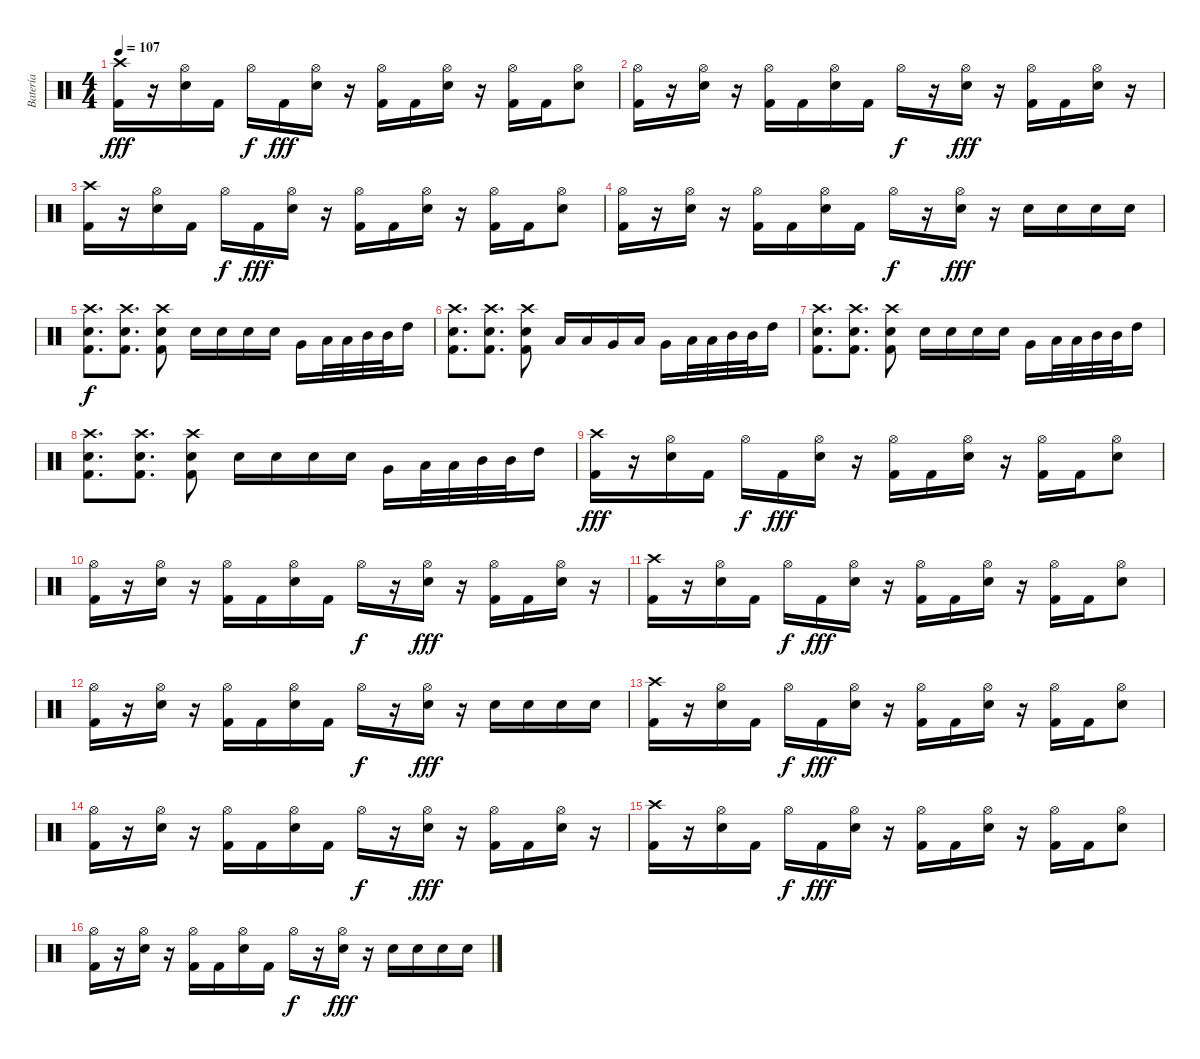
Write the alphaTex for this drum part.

\track ("Batería" "Batería") {instrument percussion}
\staff {score}
\articulation defaults
\ts (4 4)
\tempo 107
\clef neutral
\ks c
("Crash high (hit)" "Kick (hit) 2").16{dy fff} r.16 ("Hi-Hat (open)" "Electric Snare (hit)").16 "Kick (hit) 2".16 "Hi-Hat (open)".16{dy f} "Kick (hit) 2".16{dy fff} ("Hi-Hat (open)" "Electric Snare (hit)").16 r.16 ("Hi-Hat (open)" "Kick (hit) 2").16 "Kick (hit) 2".16 ("Hi-Hat (open)" "Electric Snare (hit)").16 r.16 ("Hi-Hat (open)" "Kick (hit) 2").16 "Kick (hit) 2".16 ("Hi-Hat (open)" "Electric Snare (hit)").8 |
("Hi-Hat (open)" "Kick (hit) 2").16 r.16 ("Hi-Hat (open)" "Electric Snare (hit)").16 r.16 ("Hi-Hat (open)" "Kick (hit) 2").16 "Kick (hit) 2".16 ("Hi-Hat (open)" "Electric Snare (hit)").16 "Kick (hit) 2".16 "Hi-Hat (open)".16{dy f} r.16 ("Hi-Hat (open)" "Electric Snare (hit)").16{dy fff} r.16 ("Hi-Hat (open)" "Kick (hit) 2").16 "Kick (hit) 2".16 ("Hi-Hat (open)" "Electric Snare (hit)").16 r.16 |
("Crash high (hit)" "Kick (hit) 2").16 r.16 ("Hi-Hat (open)" "Electric Snare (hit)").16 "Kick (hit) 2".16 "Hi-Hat (open)".16{dy f} "Kick (hit) 2".16{dy fff} ("Hi-Hat (open)" "Electric Snare (hit)").16 r.16 ("Hi-Hat (open)" "Kick (hit) 2").16 "Kick (hit) 2".16 ("Hi-Hat (open)" "Electric Snare (hit)").16 r.16 ("Hi-Hat (open)" "Kick (hit) 2").16 "Kick (hit) 2".16 ("Hi-Hat (open)" "Electric Snare (hit)").8 |
("Hi-Hat (open)" "Kick (hit) 2").16 r.16 ("Hi-Hat (open)" "Electric Snare (hit)").16 r.16 ("Hi-Hat (open)" "Kick (hit) 2").16 "Kick (hit) 2".16 ("Hi-Hat (open)" "Electric Snare (hit)").16 "Kick (hit) 2".16 "Hi-Hat (open)".16{dy f} r.16 ("Hi-Hat (open)" "Electric Snare (hit)").16{dy fff} r.16 "Electric Snare (hit)".16 "Electric Snare (hit)".16 "Electric Snare (hit)".16 "Electric Snare (hit)".16 |
("Crash high (hit)" "Kick (hit) 2" "Electric Snare (hit)").8{d dy f} ("Crash high (hit)" "Kick (hit) 2" "Electric Snare (hit)").8{d} ("Crash high (hit)" "Kick (hit) 2" "Electric Snare (hit)").8 "Electric Snare (hit)".16 "Electric Snare (hit)".16 "Electric Snare (hit)".16 "Electric Snare (hit)".16 "Very Low Tom (hit)".16 "Low Tom (hit)".32 "Low Tom (hit)".32 "Mid Tom (hit)".32 "Mid Tom (hit)".32 "High Tom (hit)".16 |
("Crash high (hit)" "Kick (hit) 2" "Electric Snare (hit)").8{d} ("Crash high (hit)" "Kick (hit) 2" "Electric Snare (hit)").8{d} ("Crash high (hit)" "Kick (hit) 2" "Electric Snare (hit)").8 "Low Tom (hit)".16 "Low Tom (hit)".16 "Very Low Tom (hit)".16 "Low Floor Tom (hit)".16 "Very Low Tom (hit)".16 "Low Tom (hit)".32 "Low Tom (hit)".32 "Mid Tom (hit)".32 "Mid Tom (hit)".32 "High Tom (hit)".16 |
("Crash high (hit)" "Kick (hit) 2" "Electric Snare (hit)").8{d} ("Crash high (hit)" "Kick (hit) 2" "Electric Snare (hit)").8{d} ("Crash high (hit)" "Kick (hit) 2" "Electric Snare (hit)").8 "Electric Snare (hit)".16 "Electric Snare (hit)".16 "Electric Snare (hit)".16 "Electric Snare (hit)".16 "Very Low Tom (hit)".16 "Low Tom (hit)".32 "Low Tom (hit)".32 "Mid Tom (hit)".32 "Mid Tom (hit)".32 "High Tom (hit)".16 |
("Crash high (hit)" "Kick (hit) 2" "Electric Snare (hit)").8{d} ("Crash high (hit)" "Kick (hit) 2" "Electric Snare (hit)").8{d} ("Crash high (hit)" "Kick (hit) 2" "Electric Snare (hit)").8 "Electric Snare (hit)".16 "Electric Snare (hit)".16 "Electric Snare (hit)".16 "Electric Snare (hit)".16 "Very Low Tom (hit)".16 "Low Tom (hit)".32 "Low Tom (hit)".32 "Mid Tom (hit)".32 "Mid Tom (hit)".32 "High Tom (hit)".16 |
("Crash high (hit)" "Kick (hit) 2").16{dy fff} r.16 ("Hi-Hat (open)" "Electric Snare (hit)").16 "Kick (hit) 2".16 "Hi-Hat (open)".16{dy f} "Kick (hit) 2".16{dy fff} ("Hi-Hat (open)" "Electric Snare (hit)").16 r.16 ("Hi-Hat (open)" "Kick (hit) 2").16 "Kick (hit) 2".16 ("Hi-Hat (open)" "Electric Snare (hit)").16 r.16 ("Hi-Hat (open)" "Kick (hit) 2").16 "Kick (hit) 2".16 ("Hi-Hat (open)" "Electric Snare (hit)").8 |
("Hi-Hat (open)" "Kick (hit) 2").16 r.16 ("Hi-Hat (open)" "Electric Snare (hit)").16 r.16 ("Hi-Hat (open)" "Kick (hit) 2").16 "Kick (hit) 2".16 ("Hi-Hat (open)" "Electric Snare (hit)").16 "Kick (hit) 2".16 "Hi-Hat (open)".16{dy f} r.16 ("Hi-Hat (open)" "Electric Snare (hit)").16{dy fff} r.16 ("Hi-Hat (open)" "Kick (hit) 2").16 "Kick (hit) 2".16 ("Hi-Hat (open)" "Electric Snare (hit)").16 r.16 |
("Crash high (hit)" "Kick (hit) 2").16 r.16 ("Hi-Hat (open)" "Electric Snare (hit)").16 "Kick (hit) 2".16 "Hi-Hat (open)".16{dy f} "Kick (hit) 2".16{dy fff} ("Hi-Hat (open)" "Electric Snare (hit)").16 r.16 ("Hi-Hat (open)" "Kick (hit) 2").16 "Kick (hit) 2".16 ("Hi-Hat (open)" "Electric Snare (hit)").16 r.16 ("Hi-Hat (open)" "Kick (hit) 2").16 "Kick (hit) 2".16 ("Hi-Hat (open)" "Electric Snare (hit)").8 |
("Hi-Hat (open)" "Kick (hit) 2").16 r.16 ("Hi-Hat (open)" "Electric Snare (hit)").16 r.16 ("Hi-Hat (open)" "Kick (hit) 2").16 "Kick (hit) 2".16 ("Hi-Hat (open)" "Electric Snare (hit)").16 "Kick (hit) 2".16 "Hi-Hat (open)".16{dy f} r.16 ("Hi-Hat (open)" "Electric Snare (hit)").16{dy fff} r.16 "Electric Snare (hit)".16 "Electric Snare (hit)".16 "Electric Snare (hit)".16 "Electric Snare (hit)".16 |
("Crash high (hit)" "Kick (hit) 2").16 r.16 ("Hi-Hat (open)" "Electric Snare (hit)").16 "Kick (hit) 2".16 "Hi-Hat (open)".16{dy f} "Kick (hit) 2".16{dy fff} ("Hi-Hat (open)" "Electric Snare (hit)").16 r.16 ("Hi-Hat (open)" "Kick (hit) 2").16 "Kick (hit) 2".16 ("Hi-Hat (open)" "Electric Snare (hit)").16 r.16 ("Hi-Hat (open)" "Kick (hit) 2").16 "Kick (hit) 2".16 ("Hi-Hat (open)" "Electric Snare (hit)").8 |
("Hi-Hat (open)" "Kick (hit) 2").16 r.16 ("Hi-Hat (open)" "Electric Snare (hit)").16 r.16 ("Hi-Hat (open)" "Kick (hit) 2").16 "Kick (hit) 2".16 ("Hi-Hat (open)" "Electric Snare (hit)").16 "Kick (hit) 2".16 "Hi-Hat (open)".16{dy f} r.16 ("Hi-Hat (open)" "Electric Snare (hit)").16{dy fff} r.16 ("Hi-Hat (open)" "Kick (hit) 2").16 "Kick (hit) 2".16 ("Hi-Hat (open)" "Electric Snare (hit)").16 r.16 |
("Crash high (hit)" "Kick (hit) 2").16 r.16 ("Hi-Hat (open)" "Electric Snare (hit)").16 "Kick (hit) 2".16 "Hi-Hat (open)".16{dy f} "Kick (hit) 2".16{dy fff} ("Hi-Hat (open)" "Electric Snare (hit)").16 r.16 ("Hi-Hat (open)" "Kick (hit) 2").16 "Kick (hit) 2".16 ("Hi-Hat (open)" "Electric Snare (hit)").16 r.16 ("Hi-Hat (open)" "Kick (hit) 2").16 "Kick (hit) 2".16 ("Hi-Hat (open)" "Electric Snare (hit)").8 |
("Hi-Hat (open)" "Kick (hit) 2").16 r.16 ("Hi-Hat (open)" "Electric Snare (hit)").16 r.16 ("Hi-Hat (open)" "Kick (hit) 2").16 "Kick (hit) 2".16 ("Hi-Hat (open)" "Electric Snare (hit)").16 "Kick (hit) 2".16 "Hi-Hat (open)".16{dy f} r.16 ("Hi-Hat (open)" "Electric Snare (hit)").16{dy fff} r.16 "Electric Snare (hit)".16 "Electric Snare (hit)".16 "Electric Snare (hit)".16 "Electric Snare (hit)".16
